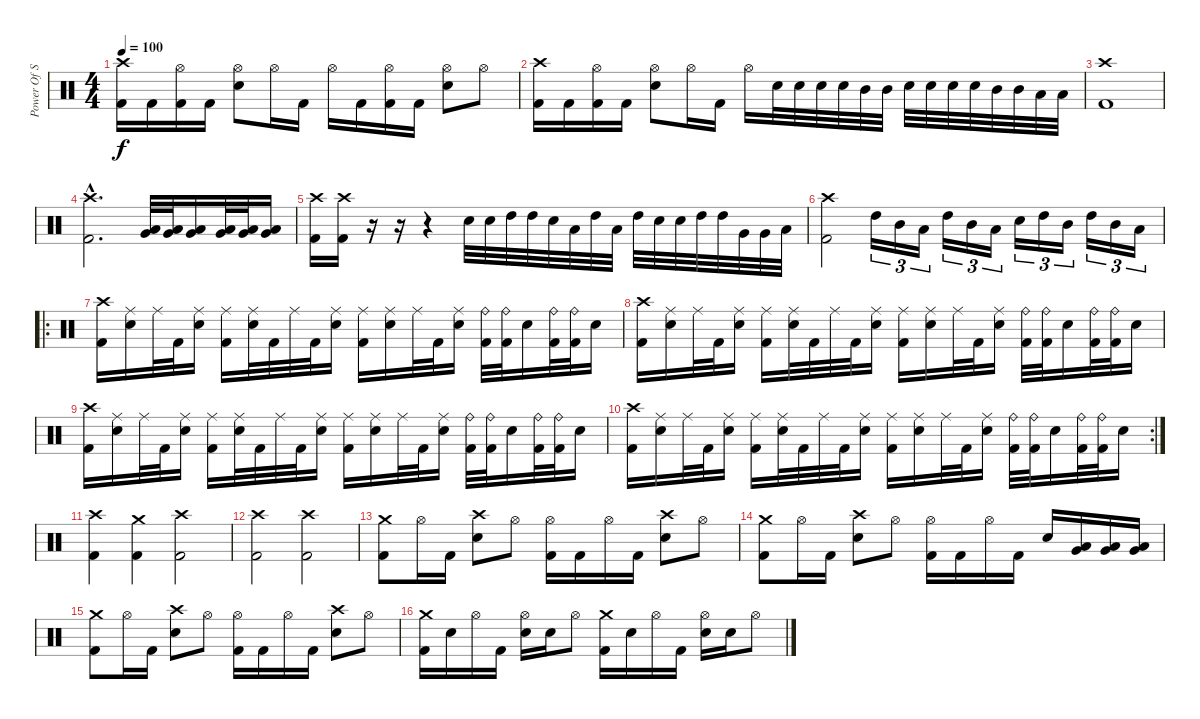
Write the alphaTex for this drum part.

\track ("Power Of Steel" "Power Of S") {instrument percussion}
\staff {score}
\articulation defaults
\ts (4 4)
\tempo 100
\clef neutral
\ks c
("Crash high (hit)" "Kick (hit) 2").16{dy f} "Kick (hit) 2".16 ("Hi-Hat (open)" "Kick (hit) 2").16 "Kick (hit) 2".16 ("Hi-Hat (open)" "Electric Snare (hit)").8 "Hi-Hat (open)".16 "Kick (hit) 2".16 "Hi-Hat (open)".16 "Kick (hit) 2".16 ("Hi-Hat (open)" "Kick (hit) 2").16 "Kick (hit) 2".16 ("Hi-Hat (open)" "Electric Snare (hit)").8 "Hi-Hat (open)".8 |
("Crash high (hit)" "Kick (hit) 2").16 "Kick (hit) 2".16 ("Hi-Hat (open)" "Kick (hit) 2").16 "Kick (hit) 2".16 ("Hi-Hat (open)" "Electric Snare (hit)").8 "Hi-Hat (open)".16 "Kick (hit) 2".16 "Hi-Hat (open)".16 "Electric Snare (hit)".32 "Electric Snare (hit)".32 "Electric Snare (hit)".32 "Electric Snare (hit)".32 "Mid Tom (hit)".32 "Mid Tom (hit)".32 "Electric Snare (hit)".32 "Electric Snare (hit)".32 "Electric Snare (hit)".32 "Electric Snare (hit)".32 "Mid Tom (hit)".32 "Mid Tom (hit)".32 "Low Tom (hit)".32 "Low Tom (hit)".32 |
("Crash high (hit)" "Kick (hit) 2").1 |
("Crash high (hit)"{hac} "Kick (hit) 2"{hac}).2{d} ("Very Low Tom (hit)" "Low Tom (hit)").32 ("Very Low Tom (hit)" "Low Tom (hit)").32 ("Very Low Tom (hit)" "Low Tom (hit)").16 ("Very Low Tom (hit)" "Low Tom (hit)").32 ("Very Low Tom (hit)" "Low Tom (hit)").32 ("Very Low Tom (hit)" "Low Tom (hit)").16 |
("Crash high (hit)" "Kick (hit) 2").16 ("Crash high (hit)" "Kick (hit) 2").16 r.16 r.16 r.4 "Electric Snare (hit)".32 "Electric Snare (hit)".32 "High Tom (hit)".32 "High Tom (hit)".32 "Electric Snare (hit)".32 "Low Tom (hit)".32 "High Tom (hit)".32 "Low Tom (hit)".32 "High Tom (hit)".32 "Electric Snare (hit)".32 "Electric Snare (hit)".32 "High Tom (hit)".32 "High Tom (hit)".32 "Very Low Tom (hit)".32 "Very Low Tom (hit)".32 "Low Floor Tom (hit)".32 |
("Crash high (hit)" "Kick (hit) 2").2 "High Tom (hit)".16{tu (3 2)} "Mid Tom (hit)".16{tu (3 2)} "Low Tom (hit)".16{tu (3 2)} "High Tom (hit)".16{tu (3 2)} "Mid Tom (hit)".16{tu (3 2)} "Low Tom (hit)".16{tu (3 2)} "Electric Snare (hit)".16{tu (3 2)} "High Tom (hit)".16{tu (3 2)} "Mid Tom (hit)".16{tu (3 2)} "High Tom (hit)".16{tu (3 2)} "Mid Tom (hit)".16{tu (3 2)} "Low Tom (hit)".16{tu (3 2)} |
\ro
("Crash high (hit)" "Kick (hit) 2").16 ("Ride (middle)" "Electric Snare (hit)").16 "Ride (middle)".32 "Kick (hit) 2".32 ("Ride (middle)" "Electric Snare (hit)").16 ("Ride (middle)" "Kick (hit) 2").16 ("Ride (middle)" "Electric Snare (hit)").32 "Kick (hit) 2".32 "Ride (middle)".32 "Kick (hit) 2".32 ("Ride (middle)" "Electric Snare (hit)").16 ("Ride (middle)" "Kick (hit) 2").16 ("Ride (middle)" "Electric Snare (hit)").16 "Ride (middle)".32 "Kick (hit) 2".32 ("Ride (middle)" "Electric Snare (hit)").16 ("Ride (bell)" "Kick (hit) 2").32 ("Ride (bell)" "Kick (hit) 2").32 "Electric Snare (hit)".16 ("Ride (bell)" "Kick (hit) 2").32 ("Ride (bell)" "Kick (hit) 2").32 "Electric Snare (hit)".16 |
("Crash high (hit)" "Kick (hit) 2").16 ("Ride (middle)" "Electric Snare (hit)").16 "Ride (middle)".32 "Kick (hit) 2".32 ("Ride (middle)" "Electric Snare (hit)").16 ("Ride (middle)" "Kick (hit) 2").16 ("Ride (middle)" "Electric Snare (hit)").32 "Kick (hit) 2".32 "Ride (middle)".32 "Kick (hit) 2".32 ("Ride (middle)" "Electric Snare (hit)").16 ("Ride (middle)" "Kick (hit) 2").16 ("Ride (middle)" "Electric Snare (hit)").16 "Ride (middle)".32 "Kick (hit) 2".32 ("Ride (middle)" "Electric Snare (hit)").16 ("Ride (bell)" "Kick (hit) 2").32 ("Ride (bell)" "Kick (hit) 2").32 "Electric Snare (hit)".16 ("Ride (bell)" "Kick (hit) 2").32 ("Ride (bell)" "Kick (hit) 2").32 "Electric Snare (hit)".16 |
("Crash high (hit)" "Kick (hit) 2").16 ("Ride (middle)" "Electric Snare (hit)").16 "Ride (middle)".32 "Kick (hit) 2".32 ("Ride (middle)" "Electric Snare (hit)").16 ("Ride (middle)" "Kick (hit) 2").16 ("Ride (middle)" "Electric Snare (hit)").32 "Kick (hit) 2".32 "Ride (middle)".32 "Kick (hit) 2".32 ("Ride (middle)" "Electric Snare (hit)").16 ("Ride (middle)" "Kick (hit) 2").16 ("Ride (middle)" "Electric Snare (hit)").16 "Ride (middle)".32 "Kick (hit) 2".32 ("Ride (middle)" "Electric Snare (hit)").16 ("Ride (bell)" "Kick (hit) 2").32 ("Ride (bell)" "Kick (hit) 2").32 "Electric Snare (hit)".16 ("Ride (bell)" "Kick (hit) 2").32 ("Ride (bell)" "Kick (hit) 2").32 "Electric Snare (hit)".16 |
\rc 2
("Crash high (hit)" "Kick (hit) 2").16 ("Ride (middle)" "Electric Snare (hit)").16 "Ride (middle)".32 "Kick (hit) 2".32 ("Ride (middle)" "Electric Snare (hit)").16 ("Ride (middle)" "Kick (hit) 2").16 ("Ride (middle)" "Electric Snare (hit)").32 "Kick (hit) 2".32 "Ride (middle)".32 "Kick (hit) 2".32 ("Ride (middle)" "Electric Snare (hit)").16 ("Ride (middle)" "Kick (hit) 2").16 ("Ride (middle)" "Electric Snare (hit)").16 "Ride (middle)".32 "Kick (hit) 2".32 ("Ride (middle)" "Electric Snare (hit)").16 ("Ride (bell)" "Kick (hit) 2").32 ("Ride (bell)" "Kick (hit) 2").32 "Electric Snare (hit)".16 ("Ride (bell)" "Kick (hit) 2").32 ("Ride (bell)" "Kick (hit) 2").32 "Electric Snare (hit)".16 |
("Crash high (hit)" "Kick (hit) 2").4 ("Crash medium (hit)" "Kick (hit) 2").4 ("Crash high (hit)" "Kick (hit) 2").2 |
("Crash high (hit)" "Kick (hit) 2").2 ("Crash high (hit)" "Kick (hit) 2").2 |
("Crash medium (hit)" "Kick (hit) 2").8 "Hi-Hat (open)".16 "Kick (hit) 2".16 ("Crash high (hit)" "Electric Snare (hit)").8 "Hi-Hat (open)".8 ("Hi-Hat (open)" "Kick (hit) 2").16 "Kick (hit) 2".16 "Hi-Hat (open)".16 "Kick (hit) 2".16 ("Crash high (hit)" "Electric Snare (hit)").8 "Hi-Hat (open)".8 |
("Crash medium (hit)" "Kick (hit) 2").8 "Hi-Hat (open)".16 "Kick (hit) 2".16 ("Crash high (hit)" "Electric Snare (hit)").8 "Hi-Hat (open)".8 ("Hi-Hat (open)" "Kick (hit) 2").16 "Kick (hit) 2".16 "Hi-Hat (open)".16 "Kick (hit) 2".16 "Electric Snare (hit)".16 ("Low Tom (hit)" "Very Low Tom (hit)").16 ("Very Low Tom (hit)" "Low Floor Tom (hit)").16 ("Very Low Tom (hit)" "Low Floor Tom (hit)").16 |
("Crash medium (hit)" "Kick (hit) 2").8 "Hi-Hat (open)".16 "Kick (hit) 2".16 ("Crash high (hit)" "Electric Snare (hit)").8 "Hi-Hat (open)".8 ("Hi-Hat (open)" "Kick (hit) 2").16 "Kick (hit) 2".16 "Hi-Hat (open)".16 "Kick (hit) 2".16 ("Crash high (hit)" "Electric Snare (hit)").8 "Hi-Hat (open)".8 |
("Crash medium (hit)" "Kick (hit) 2").16 "Electric Snare (hit)".16 "Hi-Hat (open)".16 "Kick (hit) 2".16 ("Hi-Hat (open)" "Electric Snare (hit)").16 "Electric Snare (hit)".16 "Hi-Hat (open)".8 ("Crash medium (hit)" "Kick (hit) 2").16 "Electric Snare (hit)".16 "Hi-Hat (open)".16 "Kick (hit) 2".16 ("Hi-Hat (open)" "Electric Snare (hit)").16 "Electric Snare (hit)".16 "Hi-Hat (open)".8
